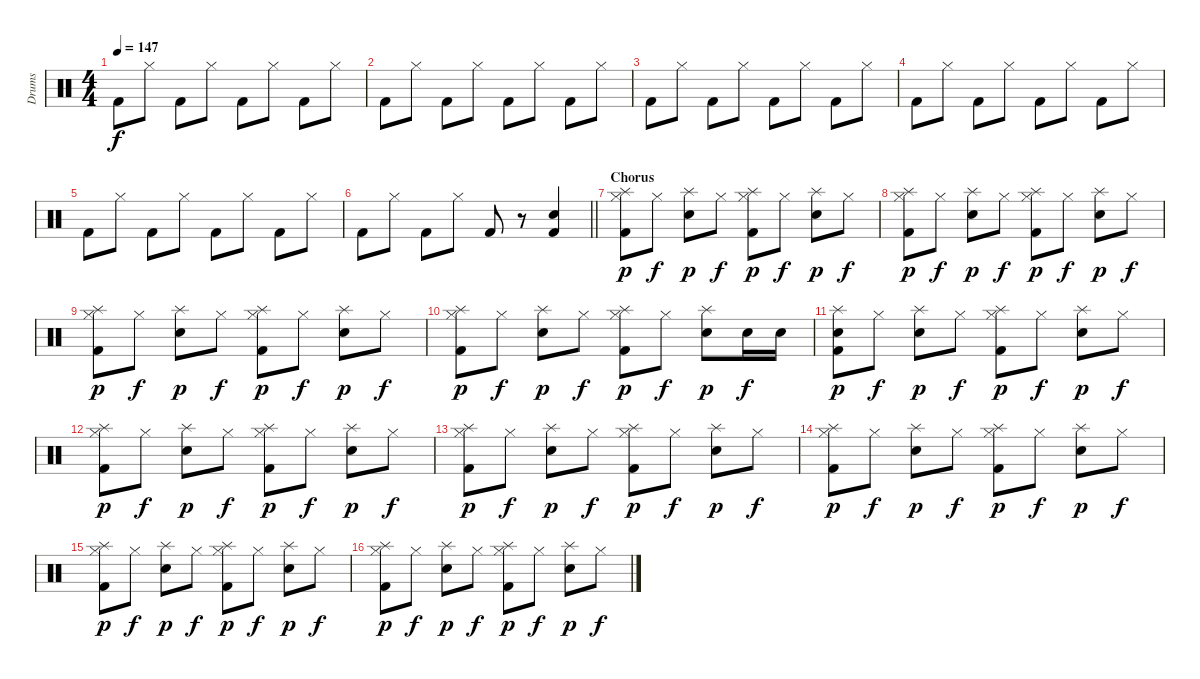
\track ("Drums" "Drums") {instrument percussion}
\staff {score}
\articulation defaults
\ts (4 4)
\tempo 147
\clef neutral
\ks c "Kick (hit) 2".8{dy f} "Hi-Hat (closed)".8 "Kick (hit) 2".8 "Hi-Hat (closed)".8 "Kick (hit) 2".8 "Hi-Hat (closed)".8 "Kick (hit) 2".8 "Hi-Hat (closed)".8
|
"Kick (hit) 2".8 "Hi-Hat (closed)".8 "Kick (hit) 2".8 "Hi-Hat (closed)".8 "Kick (hit) 2".8 "Hi-Hat (closed)".8 "Kick (hit) 2".8 "Hi-Hat (closed)".8 |
"Kick (hit) 2".8 "Hi-Hat (closed)".8 "Kick (hit) 2".8 "Hi-Hat (closed)".8 "Kick (hit) 2".8 "Hi-Hat (closed)".8 "Kick (hit) 2".8 "Hi-Hat (closed)".8 |
"Kick (hit) 2".8 "Hi-Hat (closed)".8 "Kick (hit) 2".8 "Hi-Hat (closed)".8 "Kick (hit) 2".8 "Hi-Hat (closed)".8 "Kick (hit) 2".8 "Hi-Hat (closed)".8 |
"Kick (hit) 2".8 "Hi-Hat (closed)".8 "Kick (hit) 2".8 "Hi-Hat (closed)".8 "Kick (hit) 2".8 "Hi-Hat (closed)".8 "Kick (hit) 2".8 "Hi-Hat (closed)".8 |
\barLineRight lightlight "Kick (hit) 2".8 "Hi-Hat (closed)".8 "Kick (hit) 2".8 "Hi-Hat (closed)".8 "Kick (hit) 2".8
r.8 ("Snare (hit) 2" "Kick (hit) 2").4 |
\section ("" "Chorus")
("Splash (hit)" "Hi-Hat (closed)" "Kick (hit) 2").8{dy p} "Hi-Hat (closed)".8{dy f} ("Splash (hit)" "Snare (hit) 2").8{dy p} "Hi-Hat (closed)".8{dy f} ("Splash (hit)" "Hi-Hat (closed)" "Kick (hit) 2").8{dy p} "Hi-Hat (closed)".8{dy f} ("Splash (hit)" "Snare (hit) 2").8{dy p} "Hi-Hat (closed)".8{dy f} |
("Splash (hit)" "Hi-Hat (closed)" "Kick (hit) 2").8{dy p} "Hi-Hat (closed)".8{dy f} ("Splash (hit)" "Snare (hit) 2").8{dy p} "Hi-Hat (closed)".8{dy f} ("Splash (hit)" "Hi-Hat (closed)" "Kick (hit) 2").8{dy p} "Hi-Hat (closed)".8{dy f} ("Splash (hit)" "Snare (hit) 2").8{dy p} "Hi-Hat (closed)".8{dy f} |
("Splash (hit)" "Hi-Hat (closed)" "Kick (hit) 2").8{dy p} "Hi-Hat (closed)".8{dy f} ("Splash (hit)" "Snare (hit) 2").8{dy p} "Hi-Hat (closed)".8{dy f} ("Splash (hit)" "Hi-Hat (closed)" "Kick (hit) 2").8{dy p} "Hi-Hat (closed)".8{dy f} ("Splash (hit)" "Snare (hit) 2").8{dy p} "Hi-Hat (closed)".8{dy f} |
("Splash (hit)" "Hi-Hat (closed)" "Kick (hit) 2").8{dy p} "Hi-Hat (closed)".8{dy f} ("Splash (hit)" "Snare (hit) 2").8{dy p} "Hi-Hat (closed)".8{dy f} ("Splash (hit)" "Hi-Hat (closed)" "Kick (hit) 2").8{dy p} "Hi-Hat (closed)".8{dy f} ("Splash (hit)" "Snare (hit) 2").8{dy p} "Snare (hit) 2".16{dy f} "Snare (hit) 2".16 |
("Splash (hit)" "Snare (hit) 2" "Kick (hit) 2").8{dy p} "Hi-Hat (closed)".8{dy f} ("Splash (hit)" "Snare (hit) 2").8{dy p} "Hi-Hat (closed)".8{dy f} ("Splash (hit)" "Hi-Hat (closed)" "Kick (hit) 2").8{dy p} "Hi-Hat (closed)".8{dy f} ("Splash (hit)" "Snare (hit) 2").8{dy p} "Hi-Hat (closed)".8{dy f} |
("Splash (hit)" "Hi-Hat (closed)" "Kick (hit) 2").8{dy p} "Hi-Hat (closed)".8{dy f} ("Splash (hit)" "Snare (hit) 2").8{dy p} "Hi-Hat (closed)".8{dy f} ("Splash (hit)" "Hi-Hat (closed)" "Kick (hit) 2").8{dy p} "Hi-Hat (closed)".8{dy f} ("Splash (hit)" "Snare (hit) 2").8{dy p} "Hi-Hat (closed)".8{dy f} |
("Splash (hit)" "Hi-Hat (closed)" "Kick (hit) 2").8{dy p} "Hi-Hat (closed)".8{dy f} ("Splash (hit)" "Snare (hit) 2").8{dy p} "Hi-Hat (closed)".8{dy f} ("Splash (hit)" "Hi-Hat (closed)" "Kick (hit) 2").8{dy p} "Hi-Hat (closed)".8{dy f} ("Splash (hit)" "Snare (hit) 2").8{dy p} "Hi-Hat (closed)".8{dy f} |
("Splash (hit)" "Hi-Hat (closed)" "Kick (hit) 2").8{dy p} "Hi-Hat (closed)".8{dy f} ("Splash (hit)" "Snare (hit) 2").8{dy p} "Hi-Hat (closed)".8{dy f} ("Splash (hit)" "Hi-Hat (closed)" "Kick (hit) 2").8{dy p} "Hi-Hat (closed)".8{dy f} ("Splash (hit)" "Snare (hit) 2").8{dy p} "Hi-Hat (closed)".8{dy f} |
("Splash (hit)" "Hi-Hat (closed)" "Kick (hit) 2").8{dy p} "Hi-Hat (closed)".8{dy f} ("Splash (hit)" "Snare (hit) 2").8{dy p} "Hi-Hat (closed)".8{dy f} ("Splash (hit)" "Hi-Hat (closed)" "Kick (hit) 2").8{dy p} "Hi-Hat (closed)".8{dy f} ("Splash (hit)" "Snare (hit) 2").8{dy p} "Hi-Hat (closed)".8{dy f} |
("Splash (hit)" "Hi-Hat (closed)" "Kick (hit) 2").8{dy p} "Hi-Hat (closed)".8{dy f} ("Splash (hit)" "Snare (hit) 2").8{dy p} "Hi-Hat (closed)".8{dy f} ("Splash (hit)" "Hi-Hat (closed)" "Kick (hit) 2").8{dy p} "Hi-Hat (closed)".8{dy f} ("Splash (hit)" "Snare (hit) 2").8{dy p} "Hi-Hat (closed)".8{dy f}
